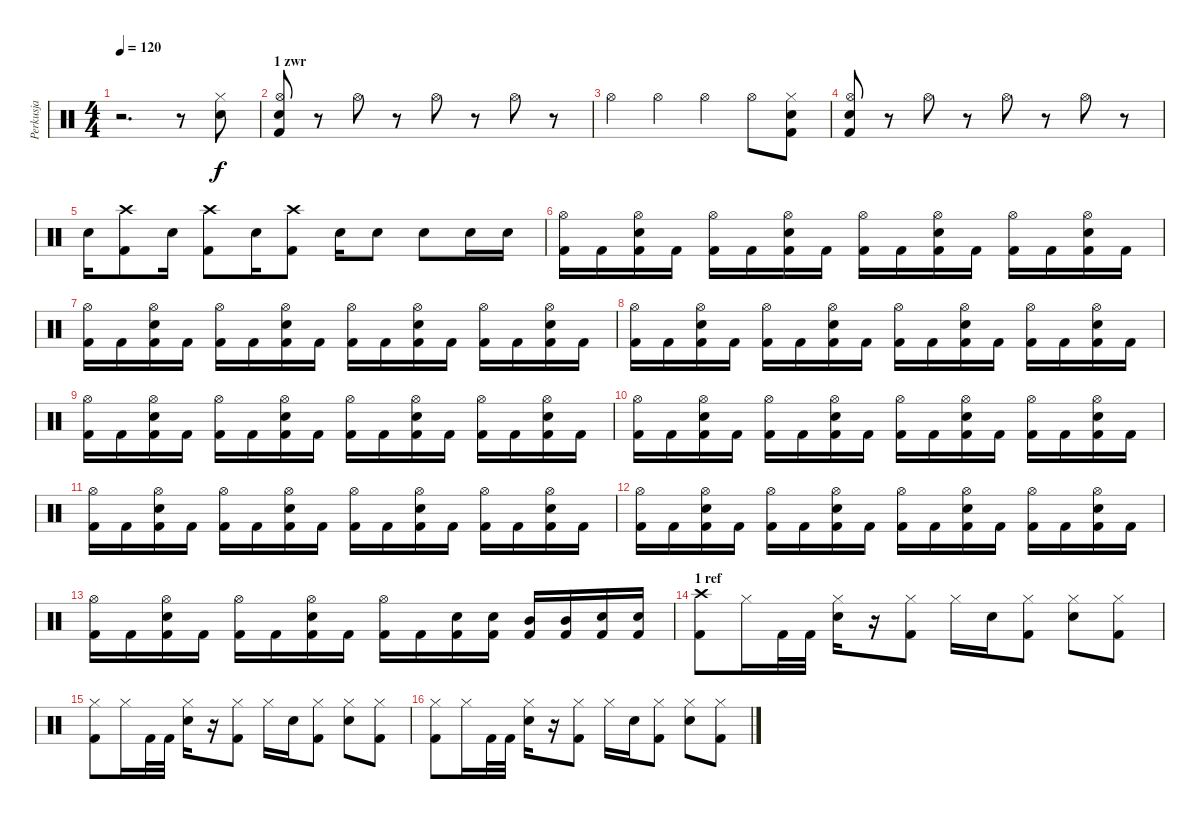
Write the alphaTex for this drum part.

\track ("Perkusja" "Perkusja") {instrument percussion}
\staff {score}
\articulation defaults
\ts (4 4)
\tempo 120
\clef neutral
\ks c
r.2{d dy f} r.8 ("Hi-Hat (closed)" "Snare (hit) 2").8 |
\section ("" "1 zwr")
("Hi-Hat (open)" "Snare (hit) 2" "Kick (hit) 2").8 r.8 "Hi-Hat (open)".8 r.8 "Hi-Hat (open)".8 r.8 "Hi-Hat (open)".8 r.8 |
"Hi-Hat (open)".4 "Hi-Hat (open)".4 "Hi-Hat (open)".4 "Hi-Hat (open)".8 ("Hi-Hat (closed)" "Snare (hit) 2" "Kick (hit) 2").8 |
("Hi-Hat (open)" "Snare (hit) 2" "Kick (hit) 2").8 r.8 "Hi-Hat (open)".8 r.8 "Hi-Hat (open)".8 r.8 "Hi-Hat (open)".8 r.8 |
"Snare (hit) 2".16 ("Crash high (hit)" "Kick (hit) 2").8 "Snare (hit) 2".16 ("Crash high (hit)" "Kick (hit) 2").8 "Snare (hit) 2".16 ("Crash high (hit)" "Kick (hit) 2").8 "Snare (hit) 2".16 "Snare (hit) 2".8 "Snare (hit) 2".8 "Snare (hit) 2".16 "Snare (hit) 2".16 |
("Hi-Hat (open)" "Kick (hit) 2").16 "Kick (hit) 2".16 ("Hi-Hat (open)" "Snare (hit) 2" "Kick (hit) 2").16 "Kick (hit) 2".16 ("Hi-Hat (open)" "Kick (hit) 2").16 "Kick (hit) 2".16 ("Hi-Hat (open)" "Snare (hit) 2" "Kick (hit) 2").16 "Kick (hit) 2".16 ("Hi-Hat (open)" "Kick (hit) 2").16 "Kick (hit) 2".16 ("Hi-Hat (open)" "Snare (hit) 2" "Kick (hit) 2").16 "Kick (hit) 2".16 ("Hi-Hat (open)" "Kick (hit) 2").16 "Kick (hit) 2".16 ("Hi-Hat (open)" "Snare (hit) 2" "Kick (hit) 2").16 "Kick (hit) 2".16 |
("Hi-Hat (open)" "Kick (hit) 2").16 "Kick (hit) 2".16 ("Hi-Hat (open)" "Snare (hit) 2" "Kick (hit) 2").16 "Kick (hit) 2".16 ("Hi-Hat (open)" "Kick (hit) 2").16 "Kick (hit) 2".16 ("Hi-Hat (open)" "Snare (hit) 2" "Kick (hit) 2").16 "Kick (hit) 2".16 ("Hi-Hat (open)" "Kick (hit) 2").16 "Kick (hit) 2".16 ("Hi-Hat (open)" "Snare (hit) 2" "Kick (hit) 2").16 "Kick (hit) 2".16 ("Hi-Hat (open)" "Kick (hit) 2").16 "Kick (hit) 2".16 ("Hi-Hat (open)" "Snare (hit) 2" "Kick (hit) 2").16 "Kick (hit) 2".16 |
("Hi-Hat (open)" "Kick (hit) 2").16 "Kick (hit) 2".16 ("Hi-Hat (open)" "Snare (hit) 2" "Kick (hit) 2").16 "Kick (hit) 2".16 ("Hi-Hat (open)" "Kick (hit) 2").16 "Kick (hit) 2".16 ("Hi-Hat (open)" "Snare (hit) 2" "Kick (hit) 2").16 "Kick (hit) 2".16 ("Hi-Hat (open)" "Kick (hit) 2").16 "Kick (hit) 2".16 ("Hi-Hat (open)" "Snare (hit) 2" "Kick (hit) 2").16 "Kick (hit) 2".16 ("Hi-Hat (open)" "Kick (hit) 2").16 "Kick (hit) 2".16 ("Hi-Hat (open)" "Snare (hit) 2" "Kick (hit) 2").16 "Kick (hit) 2".16 |
("Hi-Hat (open)" "Kick (hit) 2").16 "Kick (hit) 2".16 ("Hi-Hat (open)" "Snare (hit) 2" "Kick (hit) 2").16 "Kick (hit) 2".16 ("Hi-Hat (open)" "Kick (hit) 2").16 "Kick (hit) 2".16 ("Hi-Hat (open)" "Snare (hit) 2" "Kick (hit) 2").16 "Kick (hit) 2".16 ("Hi-Hat (open)" "Kick (hit) 2").16 "Kick (hit) 2".16 ("Hi-Hat (open)" "Snare (hit) 2" "Kick (hit) 2").16 "Kick (hit) 2".16 ("Hi-Hat (open)" "Kick (hit) 2").16 "Kick (hit) 2".16 ("Hi-Hat (open)" "Snare (hit) 2" "Kick (hit) 2").16 "Kick (hit) 2".16 |
("Hi-Hat (open)" "Kick (hit) 2").16 "Kick (hit) 2".16 ("Hi-Hat (open)" "Snare (hit) 2" "Kick (hit) 2").16 "Kick (hit) 2".16 ("Hi-Hat (open)" "Kick (hit) 2").16 "Kick (hit) 2".16 ("Hi-Hat (open)" "Snare (hit) 2" "Kick (hit) 2").16 "Kick (hit) 2".16 ("Hi-Hat (open)" "Kick (hit) 2").16 "Kick (hit) 2".16 ("Hi-Hat (open)" "Snare (hit) 2" "Kick (hit) 2").16 "Kick (hit) 2".16 ("Hi-Hat (open)" "Kick (hit) 2").16 "Kick (hit) 2".16 ("Hi-Hat (open)" "Snare (hit) 2" "Kick (hit) 2").16 "Kick (hit) 2".16 |
("Hi-Hat (open)" "Kick (hit) 2").16 "Kick (hit) 2".16 ("Hi-Hat (open)" "Snare (hit) 2" "Kick (hit) 2").16 "Kick (hit) 2".16 ("Hi-Hat (open)" "Kick (hit) 2").16 "Kick (hit) 2".16 ("Hi-Hat (open)" "Snare (hit) 2" "Kick (hit) 2").16 "Kick (hit) 2".16 ("Hi-Hat (open)" "Kick (hit) 2").16 "Kick (hit) 2".16 ("Hi-Hat (open)" "Snare (hit) 2" "Kick (hit) 2").16 "Kick (hit) 2".16 ("Hi-Hat (open)" "Kick (hit) 2").16 "Kick (hit) 2".16 ("Hi-Hat (open)" "Snare (hit) 2" "Kick (hit) 2").16 "Kick (hit) 2".16 |
("Hi-Hat (open)" "Kick (hit) 2").16 "Kick (hit) 2".16 ("Hi-Hat (open)" "Snare (hit) 2" "Kick (hit) 2").16 "Kick (hit) 2".16 ("Hi-Hat (open)" "Kick (hit) 2").16 "Kick (hit) 2".16 ("Hi-Hat (open)" "Snare (hit) 2" "Kick (hit) 2").16 "Kick (hit) 2".16 ("Hi-Hat (open)" "Kick (hit) 2").16 "Kick (hit) 2".16 ("Hi-Hat (open)" "Snare (hit) 2" "Kick (hit) 2").16 "Kick (hit) 2".16 ("Hi-Hat (open)" "Kick (hit) 2").16 "Kick (hit) 2".16 ("Hi-Hat (open)" "Snare (hit) 2" "Kick (hit) 2").16 "Kick (hit) 2".16 |
("Hi-Hat (open)" "Kick (hit) 2").16 "Kick (hit) 2".16 ("Hi-Hat (open)" "Snare (hit) 2" "Kick (hit) 2").16 "Kick (hit) 2".16 ("Hi-Hat (open)" "Kick (hit) 2").16 "Kick (hit) 2".16 ("Hi-Hat (open)" "Snare (hit) 2" "Kick (hit) 2").16 "Kick (hit) 2".16 ("Hi-Hat (open)" "Kick (hit) 2").16 "Kick (hit) 2".16 ("Snare (hit) 2" "Kick (hit) 2").16 ("Snare (hit) 2" "Kick (hit) 2").16 ("Mid Tom (hit)" "Kick (hit) 2").16 ("Mid Tom (hit)" "Kick (hit) 2").16 ("Snare (hit) 2" "Kick (hit) 2").16 ("Snare (hit) 2" "Kick (hit) 2").16 |
\section ("" "1 ref")
("Crash high (hit)" "Kick (hit) 2").8 "Hi-Hat (closed)".16 "Kick (hit) 2".32 "Kick (hit) 2".32 ("Hi-Hat (closed)" "Snare (hit) 2").16 r.16 ("Hi-Hat (closed)" "Kick (hit) 2").8 "Hi-Hat (closed)".16 "Snare (hit) 2".16 ("Hi-Hat (closed)" "Kick (hit) 2").8 ("Hi-Hat (closed)" "Snare (hit) 2").8 ("Hi-Hat (closed)" "Kick (hit) 2").8 |
("Hi-Hat (closed)" "Kick (hit) 2").8 "Hi-Hat (closed)".16 "Kick (hit) 2".32 "Kick (hit) 2".32 ("Hi-Hat (closed)" "Snare (hit) 2").16 r.16 ("Hi-Hat (closed)" "Kick (hit) 2").8 "Hi-Hat (closed)".16 "Snare (hit) 2".16 ("Hi-Hat (closed)" "Kick (hit) 2").8 ("Hi-Hat (closed)" "Snare (hit) 2").8 ("Hi-Hat (closed)" "Kick (hit) 2").8 |
("Hi-Hat (closed)" "Kick (hit) 2").8 "Hi-Hat (closed)".16 "Kick (hit) 2".32 "Kick (hit) 2".32 ("Hi-Hat (closed)" "Snare (hit) 2").16 r.16 ("Hi-Hat (closed)" "Kick (hit) 2").8 "Hi-Hat (closed)".16 "Snare (hit) 2".16 ("Hi-Hat (closed)" "Kick (hit) 2").8 ("Hi-Hat (closed)" "Snare (hit) 2").8 ("Hi-Hat (closed)" "Kick (hit) 2").8
